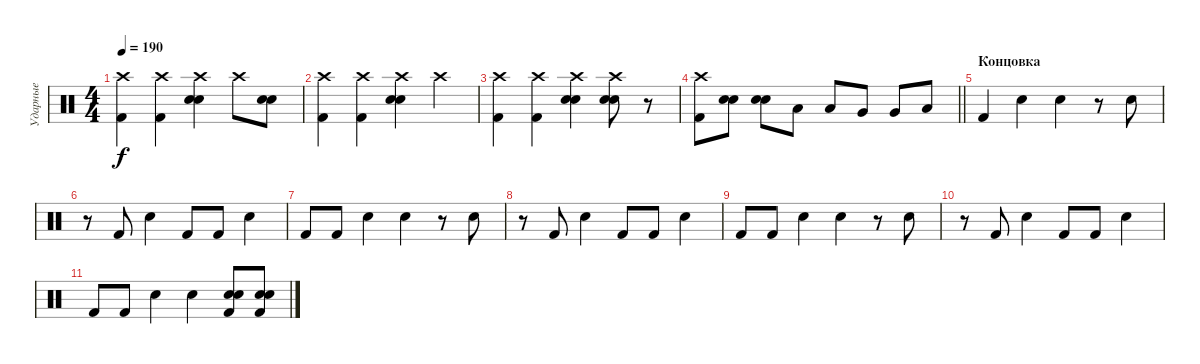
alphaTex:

\track ("Ударные" "Ударные") {instrument percussion}
\staff {score}
\articulation defaults
\ts (4 4)
\tempo 190
\clef neutral
\ks c
("Crash high (hit)" "Kick (hit) 2").4{dy f} ("Crash high (hit)" "Kick (hit) 2").4 ("Crash high (hit)" "Electric Snare (hit)" "Snare (hit) 2").4 "Crash high (hit)".8 ("Electric Snare (hit)" "Snare (hit) 2").8 |
("Crash high (hit)" "Kick (hit) 2").4 ("Crash high (hit)" "Kick (hit) 2").4 ("Crash high (hit)" "Electric Snare (hit)" "Snare (hit) 2").4 "Crash high (hit)".4 |
("Crash high (hit)" "Kick (hit) 2").4 ("Crash high (hit)" "Kick (hit) 2").4 ("Crash high (hit)" "Electric Snare (hit)" "Snare (hit) 2").4 ("Crash high (hit)" "Electric Snare (hit)" "Snare (hit) 2").8 r.8 |
\barLineRight lightlight
("Crash high (hit)" "Kick (hit) 2").8 ("Electric Snare (hit)" "Snare (hit) 2").8 ("Electric Snare (hit)" "Snare (hit) 2").8 "Low Tom (hit)".8 "Low Tom (hit)".8 "Very Low Tom (hit)".8 "Very Low Tom (hit)".8 "Low Floor Tom (hit)".8 |
\section ("" "Концовка")
"Kick (hit) 2".4 "Electric Snare (hit)".4 "Electric Snare (hit)".4 r.8 "Electric Snare (hit)".8 |
r.8 "Kick (hit) 2".8 "Electric Snare (hit)".4 "Kick (hit) 2".8 "Kick (hit) 2".8 "Electric Snare (hit)".4 |
"Kick (hit) 2".8 "Kick (hit) 2".8 "Electric Snare (hit)".4 "Electric Snare (hit)".4 r.8 "Electric Snare (hit)".8 |
r.8 "Kick (hit) 2".8 "Electric Snare (hit)".4 "Kick (hit) 2".8 "Kick (hit) 2".8 "Electric Snare (hit)".4 |
"Kick (hit) 2".8 "Kick (hit) 2".8 "Electric Snare (hit)".4 "Electric Snare (hit)".4 r.8 "Electric Snare (hit)".8 |
r.8 "Kick (hit) 2".8 "Electric Snare (hit)".4 "Kick (hit) 2".8 "Kick (hit) 2".8 "Electric Snare (hit)".4 |
"Kick (hit) 2".8 "Kick (hit) 2".8 "Electric Snare (hit)".4 "Electric Snare (hit)".4 ("Electric Snare (hit)" "Snare (hit) 2" "Kick (hit) 2").8 ("Electric Snare (hit)" "Snare (hit) 2" "Kick (hit) 2").8
